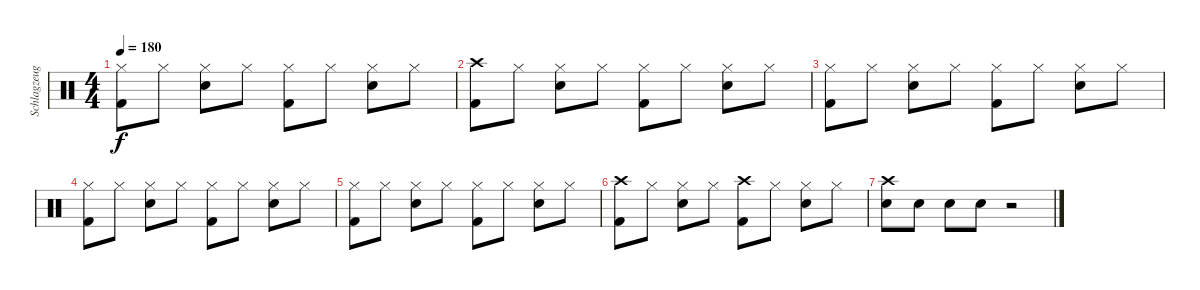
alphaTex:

\track ("Schlagzeug" "Schlagzeug") {instrument percussion}
\staff {score}
\articulation defaults
\ts (4 4)
\tempo 180
\clef neutral
\ks c
("Hi-Hat (closed)" "Kick (hit) 2").8{dy f} "Hi-Hat (closed)".8 ("Hi-Hat (closed)" "Snare (hit) 2").8 "Hi-Hat (closed)".8 ("Hi-Hat (closed)" "Kick (hit) 2").8 "Hi-Hat (closed)".8 ("Hi-Hat (closed)" "Snare (hit) 2").8 "Hi-Hat (closed)".8 |
("Kick (hit) 2" "Crash high (hit)").8 "Hi-Hat (closed)".8 ("Hi-Hat (closed)" "Snare (hit) 2").8 "Hi-Hat (closed)".8 ("Hi-Hat (closed)" "Kick (hit) 2").8 "Hi-Hat (closed)".8 ("Hi-Hat (closed)" "Snare (hit) 2").8 "Hi-Hat (closed)".8 |
("Kick (hit) 2" "Hi-Hat (closed)").8 "Hi-Hat (closed)".8 ("Hi-Hat (closed)" "Snare (hit) 2").8 "Hi-Hat (closed)".8 ("Hi-Hat (closed)" "Kick (hit) 2").8 "Hi-Hat (closed)".8 ("Hi-Hat (closed)" "Snare (hit) 2").8 "Hi-Hat (closed)".8 |
("Hi-Hat (closed)" "Kick (hit) 2").8 "Hi-Hat (closed)".8 ("Hi-Hat (closed)" "Snare (hit) 2").8 "Hi-Hat (closed)".8 ("Hi-Hat (closed)" "Kick (hit) 2").8 "Hi-Hat (closed)".8 ("Hi-Hat (closed)" "Snare (hit) 2").8 "Hi-Hat (closed)".8 |
("Hi-Hat (closed)" "Kick (hit) 2").8 "Hi-Hat (closed)".8 ("Hi-Hat (closed)" "Snare (hit) 2").8 "Hi-Hat (closed)".8 ("Hi-Hat (closed)" "Kick (hit) 2").8 "Hi-Hat (closed)".8 ("Hi-Hat (closed)" "Snare (hit) 2").8 "Hi-Hat (closed)".8 |
("Kick (hit) 2" "Crash high (hit)").8 "Hi-Hat (closed)".8 ("Snare (hit) 2" "Hi-Hat (closed)").8 "Hi-Hat (closed)".8 ("Crash high (hit)" "Kick (hit) 2").8 "Hi-Hat (closed)".8 ("Hi-Hat (closed)" "Snare (hit) 2").8 "Hi-Hat (closed)".8 |
("Snare (hit) 2" "Crash high (hit)").8 "Snare (hit) 2".8 "Snare (hit) 2".8 "Snare (hit) 2".8 r.2
